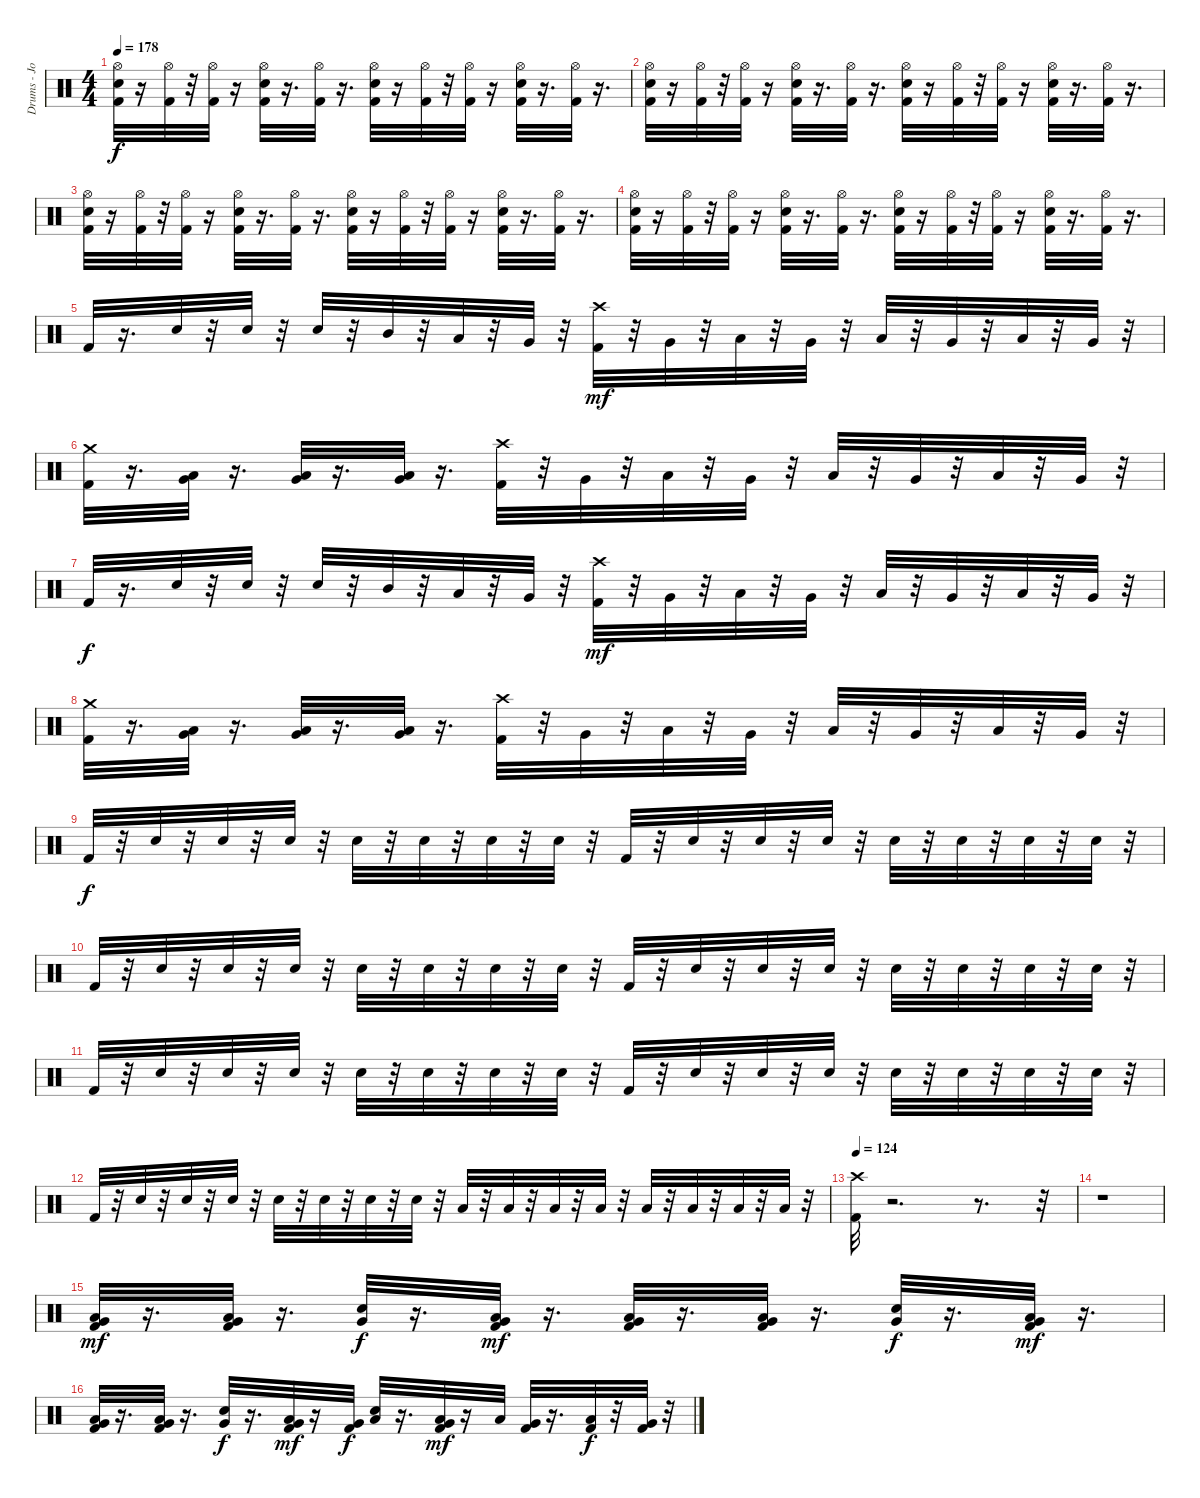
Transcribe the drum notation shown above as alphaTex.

\track ("Drums - John dette" "Drums - Jo") {instrument percussion}
\staff {score}
\articulation defaults
\ts (4 4)
\tempo 178
\clef neutral
\ks c
("Kick (hit) 2" "Snare (hit) 2" "Hi-Hat (open)").32{dy f} r.16 ("Kick (hit) 2" "Hi-Hat (open)").32 r.32 ("Kick (hit) 2" "Hi-Hat (open)").32 r.16 ("Kick (hit) 2" "Snare (hit) 2" "Hi-Hat (open)").32 r.16{d} ("Kick (hit) 2" "Hi-Hat (open)").32 r.16{d} ("Kick (hit) 2" "Snare (hit) 2" "Hi-Hat (open)").32 r.16 ("Kick (hit) 2" "Hi-Hat (open)").32 r.32 ("Kick (hit) 2" "Hi-Hat (open)").32 r.16 ("Kick (hit) 2" "Snare (hit) 2" "Hi-Hat (open)").32 r.16{d} ("Kick (hit) 2" "Hi-Hat (open)").32 r.16{d} |
("Kick (hit) 2" "Snare (hit) 2" "Hi-Hat (open)").32 r.16 ("Kick (hit) 2" "Hi-Hat (open)").32 r.32 ("Kick (hit) 2" "Hi-Hat (open)").32 r.16 ("Kick (hit) 2" "Snare (hit) 2" "Hi-Hat (open)").32 r.16{d} ("Kick (hit) 2" "Hi-Hat (open)").32 r.16{d} ("Kick (hit) 2" "Snare (hit) 2" "Hi-Hat (open)").32 r.16 ("Kick (hit) 2" "Hi-Hat (open)").32 r.32 ("Kick (hit) 2" "Hi-Hat (open)").32 r.16 ("Kick (hit) 2" "Snare (hit) 2" "Hi-Hat (open)").32 r.16{d} ("Kick (hit) 2" "Hi-Hat (open)").32 r.16{d} |
("Kick (hit) 2" "Snare (hit) 2" "Hi-Hat (open)").32 r.16 ("Kick (hit) 2" "Hi-Hat (open)").32 r.32 ("Kick (hit) 2" "Hi-Hat (open)").32 r.16 ("Kick (hit) 2" "Snare (hit) 2" "Hi-Hat (open)").32 r.16{d} ("Kick (hit) 2" "Hi-Hat (open)").32 r.16{d} ("Kick (hit) 2" "Snare (hit) 2" "Hi-Hat (open)").32 r.16 ("Kick (hit) 2" "Hi-Hat (open)").32 r.32 ("Kick (hit) 2" "Hi-Hat (open)").32 r.16 ("Kick (hit) 2" "Snare (hit) 2" "Hi-Hat (open)").32 r.16{d} ("Kick (hit) 2" "Hi-Hat (open)").32 r.16{d} |
("Kick (hit) 2" "Snare (hit) 2" "Hi-Hat (open)").32 r.16 ("Kick (hit) 2" "Hi-Hat (open)").32 r.32 ("Kick (hit) 2" "Hi-Hat (open)").32 r.16 ("Kick (hit) 2" "Snare (hit) 2" "Hi-Hat (open)").32 r.16{d} ("Kick (hit) 2" "Hi-Hat (open)").32 r.16{d} ("Kick (hit) 2" "Snare (hit) 2" "Hi-Hat (open)").32 r.16 ("Kick (hit) 2" "Hi-Hat (open)").32 r.32 ("Kick (hit) 2" "Hi-Hat (open)").32 r.16 ("Kick (hit) 2" "Snare (hit) 2" "Hi-Hat (open)").32 r.16{d} ("Kick (hit) 2" "Hi-Hat (open)").32 r.16{d} |
"Kick (hit) 2".32 r.16{d} "Snare (hit) 2".32 r.32 "Snare (hit) 2".32 r.32 "Snare (hit) 2".32 r.32 "Mid Tom (hit)".32 r.32 "Low Tom (hit)".32 r.32 "Very Low Tom (hit)".32 r.32 ("Kick (hit) 2" "Crash high (hit)").32{dy mf} r.32 "Very Low Tom (hit)".32 r.32 "Low Floor Tom (hit)".32 r.32 "Very Low Tom (hit)".32 r.32 "Low Floor Tom (hit)".32 r.32 "Very Low Tom (hit)".32 r.32 "Low Floor Tom (hit)".32 r.32 "Very Low Tom (hit)".32 r.32 |
("Kick (hit) 2" "Crash medium (hit)").32 r.16{d} ("Low Floor Tom (hit)" "Very Low Tom (hit)").32 r.16{d} ("Low Floor Tom (hit)" "Very Low Tom (hit)").32 r.16{d} ("Low Floor Tom (hit)" "Very Low Tom (hit)").32 r.16{d} ("Kick (hit) 2" "Crash high (hit)").32 r.32 "Very Low Tom (hit)".32 r.32 "Low Floor Tom (hit)".32 r.32 "Very Low Tom (hit)".32 r.32 "Low Floor Tom (hit)".32 r.32 "Very Low Tom (hit)".32 r.32 "Low Floor Tom (hit)".32 r.32 "Very Low Tom (hit)".32 r.32 |
"Kick (hit) 2".32{dy f} r.16{d} "Snare (hit) 2".32 r.32 "Snare (hit) 2".32 r.32 "Snare (hit) 2".32 r.32 "Mid Tom (hit)".32 r.32 "Low Tom (hit)".32 r.32 "Very Low Tom (hit)".32 r.32 ("Kick (hit) 2" "Crash high (hit)").32{dy mf} r.32 "Very Low Tom (hit)".32 r.32 "Low Floor Tom (hit)".32 r.32 "Very Low Tom (hit)".32 r.32 "Low Floor Tom (hit)".32 r.32 "Very Low Tom (hit)".32 r.32 "Low Floor Tom (hit)".32 r.32 "Very Low Tom (hit)".32 r.32 |
("Kick (hit) 2" "Crash medium (hit)").32 r.16{d} ("Low Floor Tom (hit)" "Very Low Tom (hit)").32 r.16{d} ("Low Floor Tom (hit)" "Very Low Tom (hit)").32 r.16{d} ("Low Floor Tom (hit)" "Very Low Tom (hit)").32 r.16{d} ("Kick (hit) 2" "Crash high (hit)").32 r.32 "Very Low Tom (hit)".32 r.32 "Low Floor Tom (hit)".32 r.32 "Very Low Tom (hit)".32 r.32 "Low Floor Tom (hit)".32 r.32 "Very Low Tom (hit)".32 r.32 "Low Floor Tom (hit)".32 r.32 "Very Low Tom (hit)".32 r.32 |
"Kick (hit) 2".32{dy f} r.32 "Snare (hit) 2".32 r.32 "Snare (hit) 2".32 r.32 "Snare (hit) 2".32 r.32 "Snare (hit) 2".32 r.32 "Snare (hit) 2".32 r.32 "Snare (hit) 2".32 r.32 "Snare (hit) 2".32 r.32 "Kick (hit) 2".32 r.32 "Snare (hit) 2".32 r.32 "Snare (hit) 2".32 r.32 "Snare (hit) 2".32 r.32 "Snare (hit) 2".32 r.32 "Snare (hit) 2".32 r.32 "Snare (hit) 2".32 r.32 "Snare (hit) 2".32 r.32 |
"Kick (hit) 2".32 r.32 "Snare (hit) 2".32 r.32 "Snare (hit) 2".32 r.32 "Snare (hit) 2".32 r.32 "Snare (hit) 2".32 r.32 "Snare (hit) 2".32 r.32 "Snare (hit) 2".32 r.32 "Snare (hit) 2".32 r.32 "Kick (hit) 2".32 r.32 "Snare (hit) 2".32 r.32 "Snare (hit) 2".32 r.32 "Snare (hit) 2".32 r.32 "Snare (hit) 2".32 r.32 "Snare (hit) 2".32 r.32 "Snare (hit) 2".32 r.32 "Snare (hit) 2".32 r.32 |
"Kick (hit) 2".32 r.32 "Snare (hit) 2".32 r.32 "Snare (hit) 2".32 r.32 "Snare (hit) 2".32 r.32 "Snare (hit) 2".32 r.32 "Snare (hit) 2".32 r.32 "Snare (hit) 2".32 r.32 "Snare (hit) 2".32 r.32 "Kick (hit) 2".32 r.32 "Snare (hit) 2".32 r.32 "Snare (hit) 2".32 r.32 "Snare (hit) 2".32 r.32 "Snare (hit) 2".32 r.32 "Snare (hit) 2".32 r.32 "Snare (hit) 2".32 r.32 "Snare (hit) 2".32 r.32 |
"Kick (hit) 2".32 r.32 "Snare (hit) 2".32 r.32 "Snare (hit) 2".32 r.32 "Snare (hit) 2".32 r.32 "Snare (hit) 2".32 r.32 "Snare (hit) 2".32 r.32 "Snare (hit) 2".32 r.32 "Snare (hit) 2".32 r.32 "Low Tom (hit)".32 r.32 "Low Tom (hit)".32 r.32 "Low Tom (hit)".32 r.32 "Low Tom (hit)".32 r.32 "Low Tom (hit)".32 r.32 "Low Tom (hit)".32 r.32 "Low Tom (hit)".32 r.32 "Low Tom (hit)".32 r.32 |
\tempo 124
("Kick (hit) 2" "Crash high (hit)").32 r.2{d} r.8{d} r.32 |
r.1 |
("Kick (hit) 2" "Low Floor Tom (hit)" "Very Low Tom (hit)").32{dy mf} r.16{d} ("Kick (hit) 2" "Low Floor Tom (hit)" "Very Low Tom (hit)").32 r.16{d} ("Snare (hit) 2" "Very Low Tom (hit)").32{dy f} r.16{d} ("Kick (hit) 2" "Low Floor Tom (hit)" "Very Low Tom (hit)").32{dy mf} r.16{d} ("Kick (hit) 2" "Low Floor Tom (hit)" "Very Low Tom (hit)").32 r.16{d} ("Kick (hit) 2" "Low Floor Tom (hit)" "Very Low Tom (hit)").32 r.16{d} ("Snare (hit) 2" "Very Low Tom (hit)").32{dy f} r.16{d} ("Kick (hit) 2" "Low Floor Tom (hit)" "Very Low Tom (hit)").32{dy mf} r.16{d} |
("Kick (hit) 2" "Low Floor Tom (hit)" "Very Low Tom (hit)").32 r.16{d} ("Kick (hit) 2" "Low Floor Tom (hit)" "Very Low Tom (hit)").32 r.16{d} ("Snare (hit) 2" "Very Low Tom (hit)").32{dy f} r.16{d} ("Kick (hit) 2" "Low Floor Tom (hit)" "Very Low Tom (hit)").32{dy mf} r.16 ("Kick (hit) 2" "Very Low Tom (hit)").32{dy f} ("Snare (hit) 2" "Low Floor Tom (hit)").32 r.16{d} ("Kick (hit) 2" "Low Floor Tom (hit)" "Very Low Tom (hit)").32{dy mf} r.16 "Low Tom (hit)".32 ("Kick (hit) 2" "Very Low Tom (hit)").32 r.16{d} ("Kick (hit) 2" "Low Tom (hit)").32{dy f} r.32 ("Kick (hit) 2" "Very Low Tom (hit)").32 r.32
